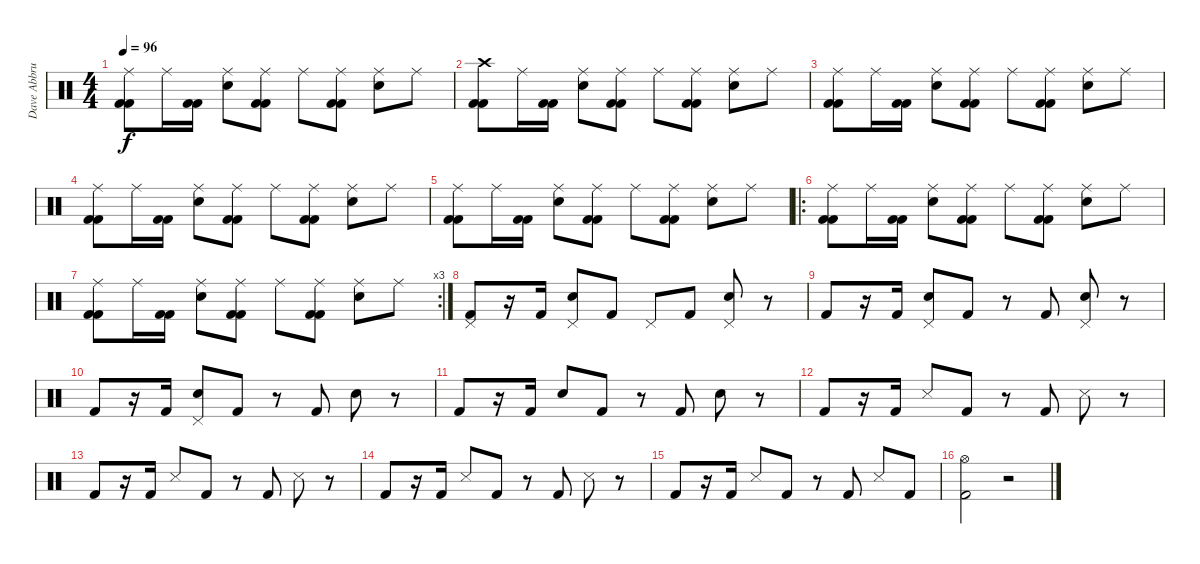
\track ("Dave Abbruzzese" "Dave Abbru") {instrument percussion}
\staff {score}
\articulation defaults
\ts (4 4)
\tempo 96
\clef neutral
\ks c
("Ride (middle)" "Kick (hit) 2" "Kick (hit) 2").8{dy f} "Ride (middle)".16 ("Kick (hit) 2" "Kick (hit) 2").16 ("Ride (middle)" "Electric Snare (hit)").8 ("Ride (middle)" "Kick (hit) 2" "Kick (hit) 2").8 "Ride (middle)".8 ("Ride (middle)" "Kick (hit) 2" "Kick (hit) 2").8 ("Ride (middle)" "Electric Snare (hit)").8 "Ride (middle)".8 |
("Crash high (hit)" "Kick (hit) 2" "Kick (hit) 2").8 "Ride (middle)".16 ("Kick (hit) 2" "Kick (hit) 2").16 ("Ride (middle)" "Electric Snare (hit)").8 ("Ride (middle)" "Kick (hit) 2" "Kick (hit) 2").8 "Ride (middle)".8 ("Ride (middle)" "Kick (hit) 2" "Kick (hit) 2").8 ("Ride (middle)" "Electric Snare (hit)").8 "Ride (middle)".8 |
("Ride (middle)" "Kick (hit) 2" "Kick (hit) 2").8 "Ride (middle)".16 ("Kick (hit) 2" "Kick (hit) 2").16 ("Ride (middle)" "Electric Snare (hit)").8 ("Ride (middle)" "Kick (hit) 2" "Kick (hit) 2").8 "Ride (middle)".8 ("Ride (middle)" "Kick (hit) 2" "Kick (hit) 2").8 ("Ride (middle)" "Electric Snare (hit)").8 "Ride (middle)".8 |
("Ride (middle)" "Kick (hit) 2" "Kick (hit) 2").8 "Ride (middle)".16 ("Kick (hit) 2" "Kick (hit) 2").16 ("Ride (middle)" "Electric Snare (hit)").8 ("Ride (middle)" "Kick (hit) 2" "Kick (hit) 2").8 "Ride (middle)".8 ("Ride (middle)" "Kick (hit) 2" "Kick (hit) 2").8 ("Ride (middle)" "Electric Snare (hit)").8 "Ride (middle)".8 |
("Ride (middle)" "Kick (hit) 2" "Kick (hit) 2").8 "Ride (middle)".16 ("Kick (hit) 2" "Kick (hit) 2").16 ("Ride (middle)" "Electric Snare (hit)").8 ("Ride (middle)" "Kick (hit) 2" "Kick (hit) 2").8 "Ride (middle)".8 ("Ride (middle)" "Kick (hit) 2" "Kick (hit) 2").8 ("Ride (middle)" "Electric Snare (hit)").8 "Ride (middle)".8 |
\ro
("Ride (middle)" "Kick (hit) 2" "Kick (hit) 2").8 "Ride (middle)".16 ("Kick (hit) 2" "Kick (hit) 2").16 ("Ride (middle)" "Electric Snare (hit)").8 ("Ride (middle)" "Kick (hit) 2" "Kick (hit) 2").8 "Ride (middle)".8 ("Ride (middle)" "Kick (hit) 2" "Kick (hit) 2").8 ("Ride (middle)" "Electric Snare (hit)").8 "Ride (middle)".8 |
\rc 3
("Ride (middle)" "Kick (hit) 2" "Kick (hit) 2").8 "Ride (middle)".16 ("Kick (hit) 2" "Kick (hit) 2").16 ("Ride (middle)" "Electric Snare (hit)").8 ("Ride (middle)" "Kick (hit) 2" "Kick (hit) 2").8 "Ride (middle)".8 ("Ride (middle)" "Kick (hit) 2" "Kick (hit) 2").8 ("Ride (middle)" "Electric Snare (hit)").8 "Ride (middle)".8 |
("Pedal Hi-Hat (hit)" "Kick (hit) 2").8 r.16 "Kick (hit) 2".16 ("Pedal Hi-Hat (hit)" "Electric Snare (hit)").8 "Kick (hit) 2".8 "Pedal Hi-Hat (hit)".8 "Kick (hit) 2".8 ("Pedal Hi-Hat (hit)" "Electric Snare (hit)").8 r.8 |
"Kick (hit) 2".8 r.16 "Kick (hit) 2".16 ("Pedal Hi-Hat (hit)" "Electric Snare (hit)").8 "Kick (hit) 2".8 r.8 "Kick (hit) 2".8 ("Pedal Hi-Hat (hit)" "Electric Snare (hit)").8 r.8 |
"Kick (hit) 2".8 r.16 "Kick (hit) 2".16 ("Pedal Hi-Hat (hit)" "Electric Snare (hit)").8 "Kick (hit) 2".8 r.8 "Kick (hit) 2".8 "Electric Snare (hit)".8 r.8 |
"Kick (hit) 2".8 r.16 "Kick (hit) 2".16 "Electric Snare (hit)".8 "Kick (hit) 2".8 r.8 "Kick (hit) 2".8 "Electric Snare (hit)".8 r.8 |
"Kick (hit) 2".8 r.16 "Kick (hit) 2".16 "Snare (side stick) 3".8 "Kick (hit) 2".8 r.8 "Kick (hit) 2".8 "Snare (side stick) 3".8 r.8 |
"Kick (hit) 2".8 r.16 "Kick (hit) 2".16 "Snare (side stick) 3".8 "Kick (hit) 2".8 r.8 "Kick (hit) 2".8 "Snare (side stick) 3".8 r.8 |
"Kick (hit) 2".8 r.16 "Kick (hit) 2".16 "Snare (side stick) 3".8 "Kick (hit) 2".8 r.8 "Kick (hit) 2".8 "Snare (side stick) 3".8 r.8 |
"Kick (hit) 2".8 r.16 "Kick (hit) 2".16 "Snare (side stick) 3".8 "Kick (hit) 2".8 r.8 "Kick (hit) 2".8 "Snare (side stick) 3".8 "Kick (hit) 2".8 |
("Hi-Hat (open)" "Kick (hit) 2").2 r.2
